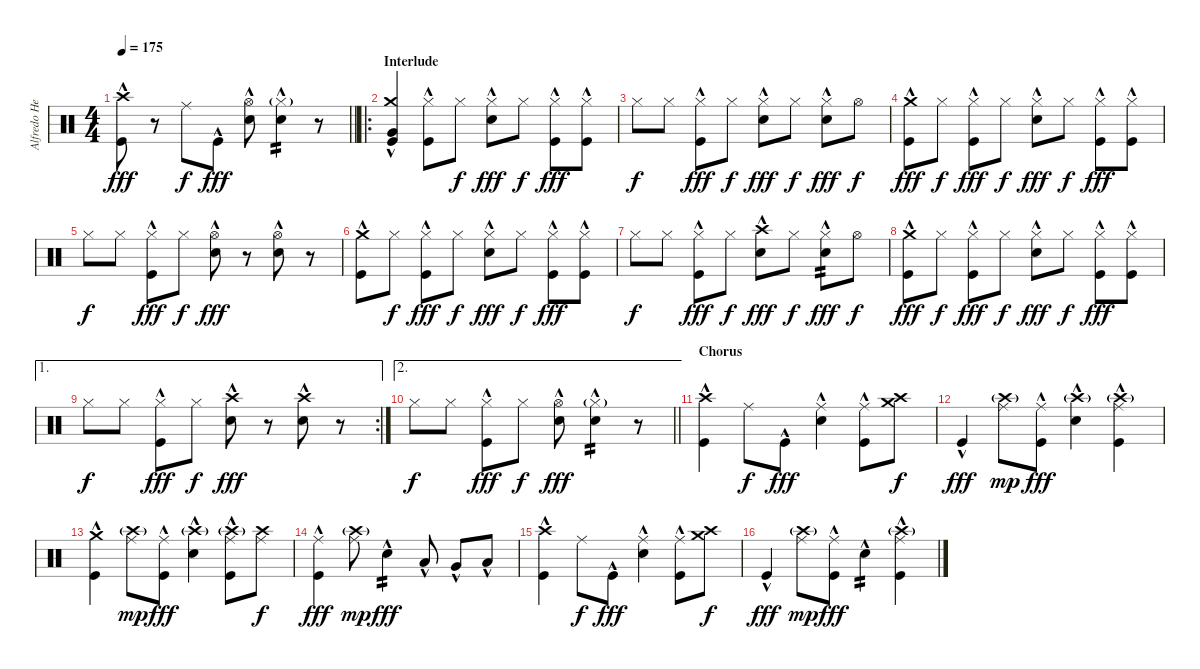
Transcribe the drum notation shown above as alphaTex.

\track ("Alfredo Hernández - Drums" "Alfredo He") {instrument percussion}
\staff {score}
\articulation defaults
\ts (4 4)
\tempo 175
\clef neutral
\barLineRight lightlight
\ks c
("Crash high (hit)"{hac} "Kick (hit)"{hac}).8{dy fff} r.8 "Ride (middle)".8{dy f} "Kick (hit)"{hac}.8{dy fff} ("Hi-Hat (open)" "Snare (hit) 2"{hac}).8 ("Hi-Hat (closed)"{g} "Snare (hit) 2"{hac}).4{tp 2} r.8 |
\ro
\section ("" "Interlude")
("Crash medium (hit)" "Very Low Tom (hit)"{hac} "Kick (hit)"{hac}).4 ("Hi-Hat (closed)" "Kick (hit)"{hac}).8 "Hi-Hat (closed)".8{dy f} ("Hi-Hat (closed)" "Snare (hit) 2"{hac}).8{dy fff} "Hi-Hat (closed)".8{dy f} ("Hi-Hat (closed)" "Kick (hit)"{hac}).8{dy fff} ("Hi-Hat (closed)" "Kick (hit)"{hac}).8 |
"Hi-Hat (closed)".8{dy f} "Hi-Hat (closed)".8 ("Hi-Hat (closed)" "Kick (hit)"{hac}).8{dy fff} "Hi-Hat (closed)".8{dy f} ("Hi-Hat (closed)" "Snare (hit) 2"{hac}).8{dy fff} "Hi-Hat (closed)".8{dy f} ("Hi-Hat (closed)" "Snare (hit) 2"{hac}).8{dy fff} "Hi-Hat (open)".8{dy f} |
("Crash medium (hit)" "Kick (hit)"{hac}).8{dy fff} "Hi-Hat (closed)".8{dy f} ("Hi-Hat (closed)" "Kick (hit)"{hac}).8{dy fff} "Hi-Hat (closed)".8{dy f} ("Hi-Hat (closed)" "Snare (hit) 2"{hac}).8{dy fff} "Hi-Hat (closed)".8{dy f} ("Hi-Hat (closed)" "Kick (hit)"{hac}).8{dy fff} ("Hi-Hat (closed)" "Kick (hit)"{hac}).8 |
"Hi-Hat (closed)".8{dy f} "Hi-Hat (closed)".8 ("Hi-Hat (closed)" "Kick (hit)"{hac}).8{dy fff} "Hi-Hat (closed)".8{dy f} ("Hi-Hat (open)" "Snare (hit) 2"{hac}).8{dy fff} r.8 ("Hi-Hat (open)" "Snare (hit) 2"{hac}).8 r.8 |
("Crash medium (hit)" "Kick (hit)"{hac}).8 "Hi-Hat (closed)".8{dy f} ("Hi-Hat (closed)" "Kick (hit)"{hac}).8{dy fff} "Hi-Hat (closed)".8{dy f} ("Hi-Hat (closed)" "Snare (hit) 2"{hac}).8{dy fff} "Hi-Hat (closed)".8{dy f} ("Hi-Hat (closed)" "Kick (hit)"{hac}).8{dy fff} ("Hi-Hat (closed)" "Kick (hit)"{hac}).8 |
"Hi-Hat (closed)".8{dy f} "Hi-Hat (closed)".8 ("Hi-Hat (closed)" "Kick (hit)"{hac}).8{dy fff} "Hi-Hat (closed)".8{dy f} ("Crash high (hit)" "Snare (hit) 2"{hac}).8{dy fff} "Hi-Hat (closed)".8{dy f} ("Hi-Hat (closed)" "Snare (hit) 2"{hac}).8{tp 2 dy fff} "Hi-Hat (open)".8{dy f} |
("Crash medium (hit)" "Kick (hit)"{hac}).8{dy fff} "Hi-Hat (closed)".8{dy f} ("Hi-Hat (closed)" "Kick (hit)"{hac}).8{dy fff} "Hi-Hat (closed)".8{dy f} ("Hi-Hat (closed)" "Snare (hit) 2"{hac}).8{dy fff} "Hi-Hat (closed)".8{dy f} ("Hi-Hat (closed)" "Kick (hit)"{hac}).8{dy fff} ("Hi-Hat (closed)" "Kick (hit)"{hac}).8 |
\ae 1
\rc 2 "Hi-Hat (closed)".8{dy f} "Hi-Hat (closed)".8
("Hi-Hat (closed)" "Kick (hit)"{hac}).8{dy fff} "Hi-Hat (closed)".8{dy f} ("Crash high (hit)" "Snare (hit) 2"{hac}).8{dy fff} r.8 ("Crash high (hit)" "Snare (hit) 2"{hac}).8 r.8 |
\ae 2
\barLineRight lightlight "Hi-Hat (closed)".8{dy f} "Hi-Hat (closed)".8
("Hi-Hat (closed)" "Kick (hit)"{hac}).8{dy fff} "Hi-Hat (closed)".8{dy f} ("Hi-Hat (open)" "Snare (hit) 2"{hac}).8{dy fff} ("Hi-Hat (closed)"{g} "Snare (hit) 2"{hac}).4{tp 2} r.8 |
\section ("" "Chorus")
("Crash high (hit)" "Kick (hit)"{hac}).4 "Ride (middle)".8{dy f} "Kick (hit)"{hac}.8{dy fff} ("Ride (middle)" "Snare (hit) 2"{hac}).4 ("Ride (middle)" "Kick (hit)"{hac}).8 ("Crash high (hit)" "Crash medium (hit)").8{dy f} |
"Kick (hit)"{hac}.4{dy fff} ("Crash high (hit)"{g} "Ride (middle)").8{dy mp} ("Ride (middle)" "Kick (hit)"{hac}).8{dy fff} ("Crash high (hit)"{g} "Snare (hit) 2"{hac}).4 ("Crash high (hit)"{g} "Ride (middle)" "Kick (hit)"{hac}).4 |
("Crash medium (hit)" "Kick (hit)"{hac}).4 ("Crash high (hit)"{g} "Ride (middle)").8{dy mp} ("Ride (middle)" "Kick (hit)"{hac}).8{dy fff} ("Crash high (hit)"{g} "Snare (hit) 2"{hac}).4 ("Crash high (hit)"{g} "Ride (middle)" "Kick (hit)"{hac}).8 ("Crash high (hit)" "Ride (middle)").8{dy f} |
("Ride (middle)" "Kick (hit)"{hac}).4{dy fff} ("Crash high (hit)"{g} "Ride (middle)").8{dy mp} "Snare (hit) 2"{hac}.4{tp 2 dy fff} "Low Tom (hit)"{hac}.8 "Very Low Tom (hit)"{hac}.8 "Low Floor Tom (hit)"{hac}.8 |
("Crash high (hit)" "Kick (hit)"{hac}).4 "Ride (middle)".8{dy f} "Kick (hit)"{hac}.8{dy fff} ("Ride (middle)" "Snare (hit) 2"{hac}).4 ("Ride (middle)" "Kick (hit)"{hac}).8 ("Crash high (hit)" "Crash medium (hit)").8{dy f} |
"Kick (hit)"{hac}.4{dy fff} ("Crash high (hit)"{g} "Ride (middle)").8{dy mp} ("Ride (middle)" "Kick (hit)"{hac}).8{dy fff} "Snare (hit) 2"{hac}.4{tp 2} ("Crash high (hit)"{g} "Ride (middle)" "Kick (hit)"{hac}).4
